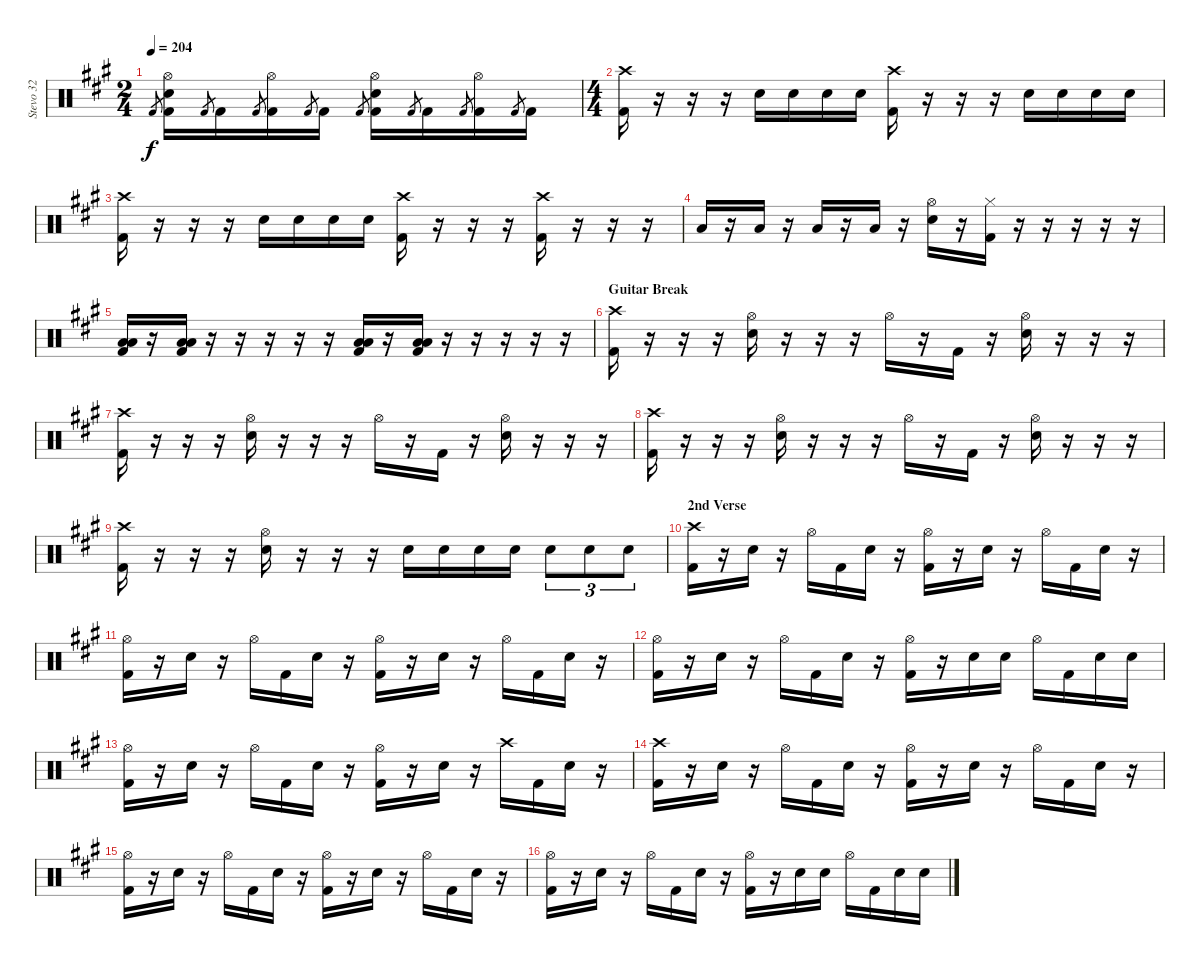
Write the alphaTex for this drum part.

\track ("Stevo 32" "Stevo 32") {instrument percussion}
\staff {score}
\articulation defaults
\ts (2 4)
\tempo 204
\clef neutral
\ks a "Kick (hit) 2".8{gr dy f}
("Hi-Hat (open)" "Snare (hit) 2" "Kick (hit) 2").16 "Kick (hit) 2".8{gr} "Kick (hit) 2".16 "Kick (hit) 2".8{gr} ("Hi-Hat (open)" "Kick (hit) 2").16 "Kick (hit) 2".8{gr} "Kick (hit) 2".16 "Kick (hit) 2".8{gr} ("Hi-Hat (open)" "Snare (hit) 2" "Kick (hit) 2").16 "Kick (hit) 2".8{gr} "Kick (hit) 2".16 "Kick (hit) 2".8{gr} ("Hi-Hat (open)" "Kick (hit) 2").16 "Kick (hit) 2".8{gr} "Kick (hit) 2".16 |
\ts (4 4)
("Crash high (hit)" "Kick (hit) 2").16 r.16 r.16 r.16 "Snare (hit) 2".16 "Snare (hit) 2".16 "Snare (hit) 2".16 "Snare (hit) 2".16 ("Crash high (hit)" "Kick (hit) 2").16 r.16 r.16 r.16 "Snare (hit) 2".16 "Snare (hit) 2".16 "Snare (hit) 2".16 "Snare (hit) 2".16 |
("Crash high (hit)" "Kick (hit) 2").16 r.16 r.16 r.16 "Snare (hit) 2".16 "Snare (hit) 2".16 "Snare (hit) 2".16 "Snare (hit) 2".16 ("Crash high (hit)" "Kick (hit) 2").16 r.16 r.16 r.16 ("Crash high (hit)" "Kick (hit) 2").16 r.16 r.16 r.16 |
"Low Floor Tom (hit)".16 r.16 "Low Floor Tom (hit)".16 r.16 "Low Floor Tom (hit)".16 r.16 "Low Floor Tom (hit)".16 r.16 ("Hi-Hat (open)" "Snare (hit) 2").16 r.16 ("Hi-Hat (closed)" "Kick (hit) 2").16 r.16 r.16 r.16 r.16 r.16 |
("Low Tom (hit)" "Low Floor Tom (hit)" "Kick (hit) 2").16 r.16 ("Low Tom (hit)" "Low Floor Tom (hit)" "Kick (hit) 2").16 r.16 r.16 r.16 r.16 r.16 ("Low Tom (hit)" "Low Floor Tom (hit)" "Kick (hit) 2").16 r.16 ("Low Tom (hit)" "Low Floor Tom (hit)" "Kick (hit) 2").16 r.16 r.16 r.16 r.16 r.16 |
\section ("" "Guitar Break")
("Crash high (hit)" "Kick (hit) 2").16 r.16 r.16 r.16 ("Hi-Hat (open)" "Snare (hit) 2").16 r.16 r.16 r.16 "Hi-Hat (open)".16 r.16 "Kick (hit) 2".16 r.16 ("Hi-Hat (open)" "Snare (hit) 2").16 r.16 r.16 r.16 |
("Crash high (hit)" "Kick (hit) 2").16 r.16 r.16 r.16 ("Hi-Hat (open)" "Snare (hit) 2").16 r.16 r.16 r.16 "Hi-Hat (open)".16 r.16 "Kick (hit) 2".16 r.16 ("Hi-Hat (open)" "Snare (hit) 2").16 r.16 r.16 r.16 |
("Crash high (hit)" "Kick (hit) 2").16 r.16 r.16 r.16 ("Hi-Hat (open)" "Snare (hit) 2").16 r.16 r.16 r.16 "Hi-Hat (open)".16 r.16 "Kick (hit) 2".16 r.16 ("Hi-Hat (open)" "Snare (hit) 2").16 r.16 r.16 r.16 |
("Crash high (hit)" "Kick (hit) 2").16 r.16 r.16 r.16 ("Hi-Hat (open)" "Snare (hit) 2").16 r.16 r.16 r.16 "Snare (hit) 2".16 "Snare (hit) 2".16 "Snare (hit) 2".16 "Snare (hit) 2".16 "Snare (hit) 2".8{tu (3 2)} "Snare (hit) 2".8{tu (3 2)} "Snare (hit) 2".8{tu (3 2)} |
\section ("" "2nd Verse ")
("Crash high (hit)" "Kick (hit) 2").16 r.16 "Snare (hit) 2".16 r.16 "Hi-Hat (open)".16 "Kick (hit) 2".16 "Snare (hit) 2".16 r.16 ("Hi-Hat (open)" "Kick (hit) 2").16 r.16 "Snare (hit) 2".16 r.16 "Hi-Hat (open)".16 "Kick (hit) 2".16 "Snare (hit) 2".16 r.16 |
("Hi-Hat (open)" "Kick (hit) 2").16 r.16 "Snare (hit) 2".16 r.16 "Hi-Hat (open)".16 "Kick (hit) 2".16 "Snare (hit) 2".16 r.16 ("Hi-Hat (open)" "Kick (hit) 2").16 r.16 "Snare (hit) 2".16 r.16 "Hi-Hat (open)".16 "Kick (hit) 2".16 "Snare (hit) 2".16 r.16 |
("Hi-Hat (open)" "Kick (hit) 2").16 r.16 "Snare (hit) 2".16 r.16 "Hi-Hat (open)".16 "Kick (hit) 2".16 "Snare (hit) 2".16 r.16 ("Hi-Hat (open)" "Kick (hit) 2").16 r.16 "Snare (hit) 2".16 "Snare (hit) 2".16 "Hi-Hat (open)".16 "Kick (hit) 2".16 "Snare (hit) 2".16 "Snare (hit) 2".16 |
("Hi-Hat (open)" "Kick (hit) 2").16 r.16 "Snare (hit) 2".16 r.16 "Hi-Hat (open)".16 "Kick (hit) 2".16 "Snare (hit) 2".16 r.16 ("Hi-Hat (open)" "Kick (hit) 2").16 r.16 "Snare (hit) 2".16 r.16 "Crash high (hit)".16 "Kick (hit) 2".16 "Snare (hit) 2".16 r.16 |
("Crash high (hit)" "Kick (hit) 2").16 r.16 "Snare (hit) 2".16 r.16 "Hi-Hat (open)".16 "Kick (hit) 2".16 "Snare (hit) 2".16 r.16 ("Hi-Hat (open)" "Kick (hit) 2").16 r.16 "Snare (hit) 2".16 r.16 "Hi-Hat (open)".16 "Kick (hit) 2".16 "Snare (hit) 2".16 r.16 |
("Hi-Hat (open)" "Kick (hit) 2").16 r.16 "Snare (hit) 2".16 r.16 "Hi-Hat (open)".16 "Kick (hit) 2".16 "Snare (hit) 2".16 r.16 ("Hi-Hat (open)" "Kick (hit) 2").16 r.16 "Snare (hit) 2".16 r.16 "Hi-Hat (open)".16 "Kick (hit) 2".16 "Snare (hit) 2".16 r.16 |
("Hi-Hat (open)" "Kick (hit) 2").16 r.16 "Snare (hit) 2".16 r.16 "Hi-Hat (open)".16 "Kick (hit) 2".16 "Snare (hit) 2".16 r.16 ("Hi-Hat (open)" "Kick (hit) 2").16 r.16 "Snare (hit) 2".16 "Snare (hit) 2".16 "Hi-Hat (open)".16 "Kick (hit) 2".16 "Snare (hit) 2".16 "Snare (hit) 2".16
